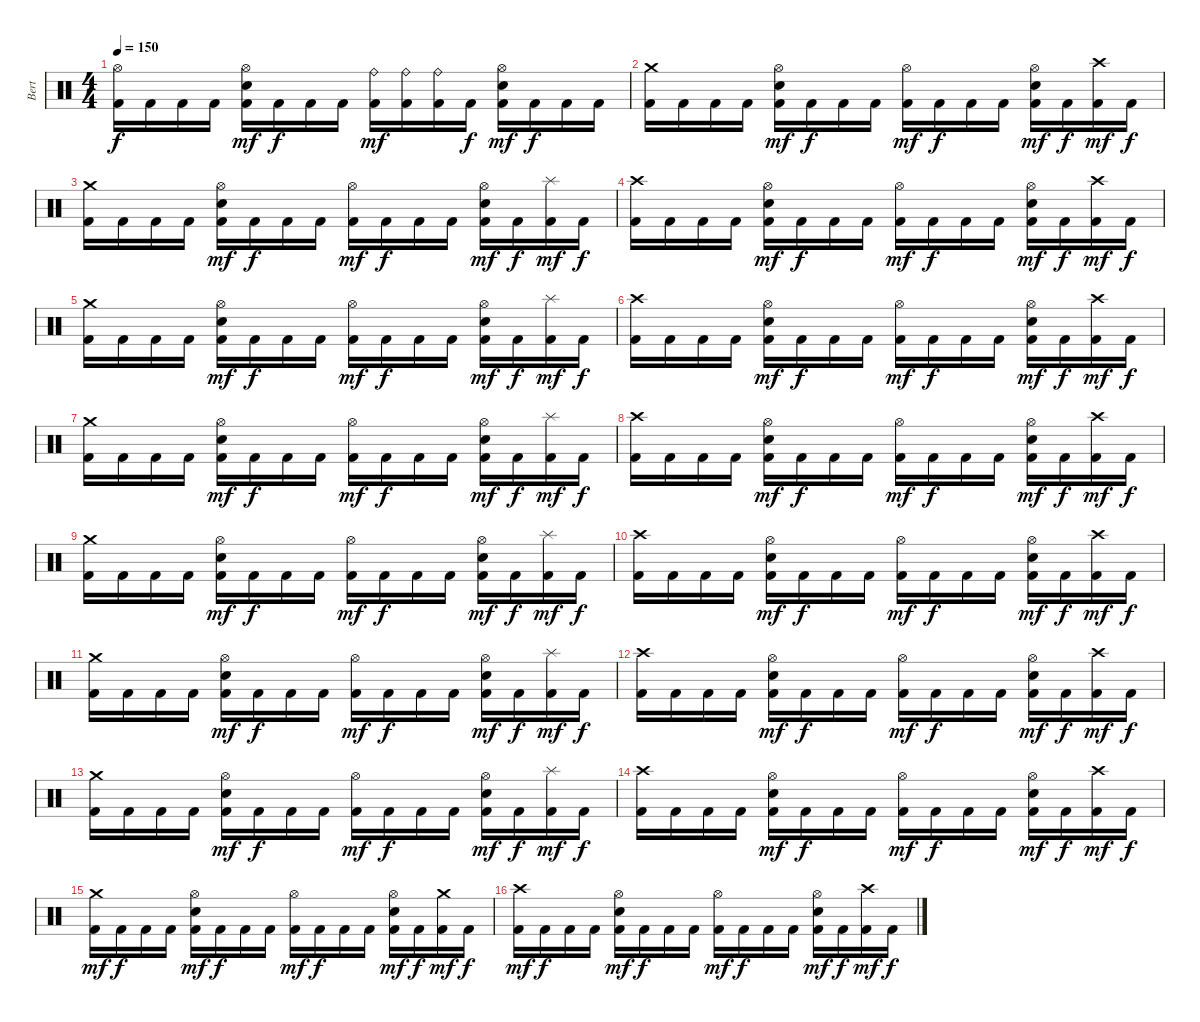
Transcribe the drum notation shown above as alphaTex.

\track ("Bert" "Bert") {instrument percussion}
\staff {score}
\articulation defaults
\ts (4 4)
\tempo 150
\clef neutral
\ks c
("Hi-Hat (open)" "Kick (hit) 2").16{dy f} "Kick (hit) 2".16 "Kick (hit) 2".16 "Kick (hit) 2".16 ("Hi-Hat (open)" "Snare (hit) 2" "Kick (hit) 2").16{dy mf} "Kick (hit) 2".16{dy f} "Kick (hit) 2".16 "Kick (hit) 2".16 ("Ride (bell)" "Kick (hit) 2").16{dy mf} ("Ride (bell)" "Kick (hit) 2").16 ("Ride (bell)" "Kick (hit) 2").16 "Kick (hit) 2".16{dy f} ("Hi-Hat (open)" "Snare (hit) 2" "Kick (hit) 2").16{dy mf} "Kick (hit) 2".16{dy f} "Kick (hit) 2".16 "Kick (hit) 2".16 |
("Crash medium (hit)" "Kick (hit) 2").16 "Kick (hit) 2".16 "Kick (hit) 2".16 "Kick (hit) 2".16 ("Hi-Hat (open)" "Snare (hit) 2" "Kick (hit) 2").16{dy mf} "Kick (hit) 2".16{dy f} "Kick (hit) 2".16 "Kick (hit) 2".16 ("Hi-Hat (open)" "Kick (hit) 2").16{dy mf} "Kick (hit) 2".16{dy f} "Kick (hit) 2".16 "Kick (hit) 2".16 ("Hi-Hat (open)" "Snare (hit) 2" "Kick (hit) 2").16{dy mf} "Kick (hit) 2".16{dy f} ("Crash high (hit)" "Kick (hit) 2").16{dy mf} "Kick (hit) 2".16{dy f} |
("Crash medium (hit)" "Kick (hit) 2").16 "Kick (hit) 2".16 "Kick (hit) 2".16 "Kick (hit) 2".16 ("Hi-Hat (open)" "Snare (hit) 2" "Kick (hit) 2").16{dy mf} "Kick (hit) 2".16{dy f} "Kick (hit) 2".16 "Kick (hit) 2".16 ("Hi-Hat (open)" "Kick (hit) 2").16{dy mf} "Kick (hit) 2".16{dy f} "Kick (hit) 2".16 "Kick (hit) 2".16 ("Hi-Hat (open)" "Snare (hit) 2" "Kick (hit) 2").16{dy mf} "Kick (hit) 2".16{dy f} ("Splash (hit)" "Kick (hit) 2").16{dy mf} "Kick (hit) 2".16{dy f} |
("Crash high (hit)" "Kick (hit) 2").16 "Kick (hit) 2".16 "Kick (hit) 2".16 "Kick (hit) 2".16 ("Hi-Hat (open)" "Snare (hit) 2" "Kick (hit) 2").16{dy mf} "Kick (hit) 2".16{dy f} "Kick (hit) 2".16 "Kick (hit) 2".16 ("Hi-Hat (open)" "Kick (hit) 2").16{dy mf} "Kick (hit) 2".16{dy f} "Kick (hit) 2".16 "Kick (hit) 2".16 ("Hi-Hat (open)" "Snare (hit) 2" "Kick (hit) 2").16{dy mf} "Kick (hit) 2".16{dy f} ("Crash high (hit)" "Kick (hit) 2").16{dy mf} "Kick (hit) 2".16{dy f} |
("Crash medium (hit)" "Kick (hit) 2").16 "Kick (hit) 2".16 "Kick (hit) 2".16 "Kick (hit) 2".16 ("Hi-Hat (open)" "Snare (hit) 2" "Kick (hit) 2").16{dy mf} "Kick (hit) 2".16{dy f} "Kick (hit) 2".16 "Kick (hit) 2".16 ("Hi-Hat (open)" "Kick (hit) 2").16{dy mf} "Kick (hit) 2".16{dy f} "Kick (hit) 2".16 "Kick (hit) 2".16 ("Hi-Hat (open)" "Snare (hit) 2" "Kick (hit) 2").16{dy mf} "Kick (hit) 2".16{dy f} ("Splash (hit)" "Kick (hit) 2").16{dy mf} "Kick (hit) 2".16{dy f} |
("Crash high (hit)" "Kick (hit) 2").16 "Kick (hit) 2".16 "Kick (hit) 2".16 "Kick (hit) 2".16 ("Hi-Hat (open)" "Snare (hit) 2" "Kick (hit) 2").16{dy mf} "Kick (hit) 2".16{dy f} "Kick (hit) 2".16 "Kick (hit) 2".16 ("Hi-Hat (open)" "Kick (hit) 2").16{dy mf} "Kick (hit) 2".16{dy f} "Kick (hit) 2".16 "Kick (hit) 2".16 ("Hi-Hat (open)" "Snare (hit) 2" "Kick (hit) 2").16{dy mf} "Kick (hit) 2".16{dy f} ("Crash high (hit)" "Kick (hit) 2").16{dy mf} "Kick (hit) 2".16{dy f} |
("Crash medium (hit)" "Kick (hit) 2").16 "Kick (hit) 2".16 "Kick (hit) 2".16 "Kick (hit) 2".16 ("Hi-Hat (open)" "Snare (hit) 2" "Kick (hit) 2").16{dy mf} "Kick (hit) 2".16{dy f} "Kick (hit) 2".16 "Kick (hit) 2".16 ("Hi-Hat (open)" "Kick (hit) 2").16{dy mf} "Kick (hit) 2".16{dy f} "Kick (hit) 2".16 "Kick (hit) 2".16 ("Hi-Hat (open)" "Snare (hit) 2" "Kick (hit) 2").16{dy mf} "Kick (hit) 2".16{dy f} ("Splash (hit)" "Kick (hit) 2").16{dy mf} "Kick (hit) 2".16{dy f} |
("Crash high (hit)" "Kick (hit) 2").16 "Kick (hit) 2".16 "Kick (hit) 2".16 "Kick (hit) 2".16 ("Hi-Hat (open)" "Snare (hit) 2" "Kick (hit) 2").16{dy mf} "Kick (hit) 2".16{dy f} "Kick (hit) 2".16 "Kick (hit) 2".16 ("Hi-Hat (open)" "Kick (hit) 2").16{dy mf} "Kick (hit) 2".16{dy f} "Kick (hit) 2".16 "Kick (hit) 2".16 ("Hi-Hat (open)" "Snare (hit) 2" "Kick (hit) 2").16{dy mf} "Kick (hit) 2".16{dy f} ("Crash high (hit)" "Kick (hit) 2").16{dy mf} "Kick (hit) 2".16{dy f} |
("Crash medium (hit)" "Kick (hit) 2").16 "Kick (hit) 2".16 "Kick (hit) 2".16 "Kick (hit) 2".16 ("Hi-Hat (open)" "Snare (hit) 2" "Kick (hit) 2").16{dy mf} "Kick (hit) 2".16{dy f} "Kick (hit) 2".16 "Kick (hit) 2".16 ("Hi-Hat (open)" "Kick (hit) 2").16{dy mf} "Kick (hit) 2".16{dy f} "Kick (hit) 2".16 "Kick (hit) 2".16 ("Hi-Hat (open)" "Snare (hit) 2" "Kick (hit) 2").16{dy mf} "Kick (hit) 2".16{dy f} ("Splash (hit)" "Kick (hit) 2").16{dy mf} "Kick (hit) 2".16{dy f} |
("Crash high (hit)" "Kick (hit) 2").16 "Kick (hit) 2".16 "Kick (hit) 2".16 "Kick (hit) 2".16 ("Hi-Hat (open)" "Snare (hit) 2" "Kick (hit) 2").16{dy mf} "Kick (hit) 2".16{dy f} "Kick (hit) 2".16 "Kick (hit) 2".16 ("Hi-Hat (open)" "Kick (hit) 2").16{dy mf} "Kick (hit) 2".16{dy f} "Kick (hit) 2".16 "Kick (hit) 2".16 ("Hi-Hat (open)" "Snare (hit) 2" "Kick (hit) 2").16{dy mf} "Kick (hit) 2".16{dy f} ("Crash high (hit)" "Kick (hit) 2").16{dy mf} "Kick (hit) 2".16{dy f} |
("Crash medium (hit)" "Kick (hit) 2").16 "Kick (hit) 2".16 "Kick (hit) 2".16 "Kick (hit) 2".16 ("Hi-Hat (open)" "Snare (hit) 2" "Kick (hit) 2").16{dy mf} "Kick (hit) 2".16{dy f} "Kick (hit) 2".16 "Kick (hit) 2".16 ("Hi-Hat (open)" "Kick (hit) 2").16{dy mf} "Kick (hit) 2".16{dy f} "Kick (hit) 2".16 "Kick (hit) 2".16 ("Hi-Hat (open)" "Snare (hit) 2" "Kick (hit) 2").16{dy mf} "Kick (hit) 2".16{dy f} ("Splash (hit)" "Kick (hit) 2").16{dy mf} "Kick (hit) 2".16{dy f} |
("Crash high (hit)" "Kick (hit) 2").16 "Kick (hit) 2".16 "Kick (hit) 2".16 "Kick (hit) 2".16 ("Hi-Hat (open)" "Snare (hit) 2" "Kick (hit) 2").16{dy mf} "Kick (hit) 2".16{dy f} "Kick (hit) 2".16 "Kick (hit) 2".16 ("Hi-Hat (open)" "Kick (hit) 2").16{dy mf} "Kick (hit) 2".16{dy f} "Kick (hit) 2".16 "Kick (hit) 2".16 ("Hi-Hat (open)" "Snare (hit) 2" "Kick (hit) 2").16{dy mf} "Kick (hit) 2".16{dy f} ("Crash high (hit)" "Kick (hit) 2").16{dy mf} "Kick (hit) 2".16{dy f} |
("Crash medium (hit)" "Kick (hit) 2").16 "Kick (hit) 2".16 "Kick (hit) 2".16 "Kick (hit) 2".16 ("Hi-Hat (open)" "Snare (hit) 2" "Kick (hit) 2").16{dy mf} "Kick (hit) 2".16{dy f} "Kick (hit) 2".16 "Kick (hit) 2".16 ("Hi-Hat (open)" "Kick (hit) 2").16{dy mf} "Kick (hit) 2".16{dy f} "Kick (hit) 2".16 "Kick (hit) 2".16 ("Hi-Hat (open)" "Snare (hit) 2" "Kick (hit) 2").16{dy mf} "Kick (hit) 2".16{dy f} ("Splash (hit)" "Kick (hit) 2").16{dy mf} "Kick (hit) 2".16{dy f} |
("Crash high (hit)" "Kick (hit) 2").16 "Kick (hit) 2".16 "Kick (hit) 2".16 "Kick (hit) 2".16 ("Hi-Hat (open)" "Snare (hit) 2" "Kick (hit) 2").16{dy mf} "Kick (hit) 2".16{dy f} "Kick (hit) 2".16 "Kick (hit) 2".16 ("Hi-Hat (open)" "Kick (hit) 2").16{dy mf} "Kick (hit) 2".16{dy f} "Kick (hit) 2".16 "Kick (hit) 2".16 ("Hi-Hat (open)" "Snare (hit) 2" "Kick (hit) 2").16{dy mf} "Kick (hit) 2".16{dy f} ("Crash high (hit)" "Kick (hit) 2").16{dy mf} "Kick (hit) 2".16{dy f} |
("Crash medium (hit)" "Kick (hit) 2").16{dy mf} "Kick (hit) 2".16{dy f} "Kick (hit) 2".16 "Kick (hit) 2".16 ("Hi-Hat (open)" "Snare (hit) 2" "Kick (hit) 2").16{dy mf} "Kick (hit) 2".16{dy f} "Kick (hit) 2".16 "Kick (hit) 2".16 ("Hi-Hat (open)" "Kick (hit) 2").16{dy mf} "Kick (hit) 2".16{dy f} "Kick (hit) 2".16 "Kick (hit) 2".16 ("Hi-Hat (open)" "Snare (hit) 2" "Kick (hit) 2").16{dy mf} "Kick (hit) 2".16{dy f} ("Crash medium (hit)" "Kick (hit) 2").16{dy mf} "Kick (hit) 2".16{dy f} |
("Crash high (hit)" "Kick (hit) 2").16{dy mf} "Kick (hit) 2".16{dy f} "Kick (hit) 2".16 "Kick (hit) 2".16 ("Hi-Hat (open)" "Snare (hit) 2" "Kick (hit) 2").16{dy mf} "Kick (hit) 2".16{dy f} "Kick (hit) 2".16 "Kick (hit) 2".16 ("Hi-Hat (open)" "Kick (hit) 2").16{dy mf} "Kick (hit) 2".16{dy f} "Kick (hit) 2".16 "Kick (hit) 2".16 ("Hi-Hat (open)" "Snare (hit) 2" "Kick (hit) 2").16{dy mf} "Kick (hit) 2".16{dy f} ("Crash high (hit)" "Kick (hit) 2").16{dy mf} "Kick (hit) 2".16{dy f}
